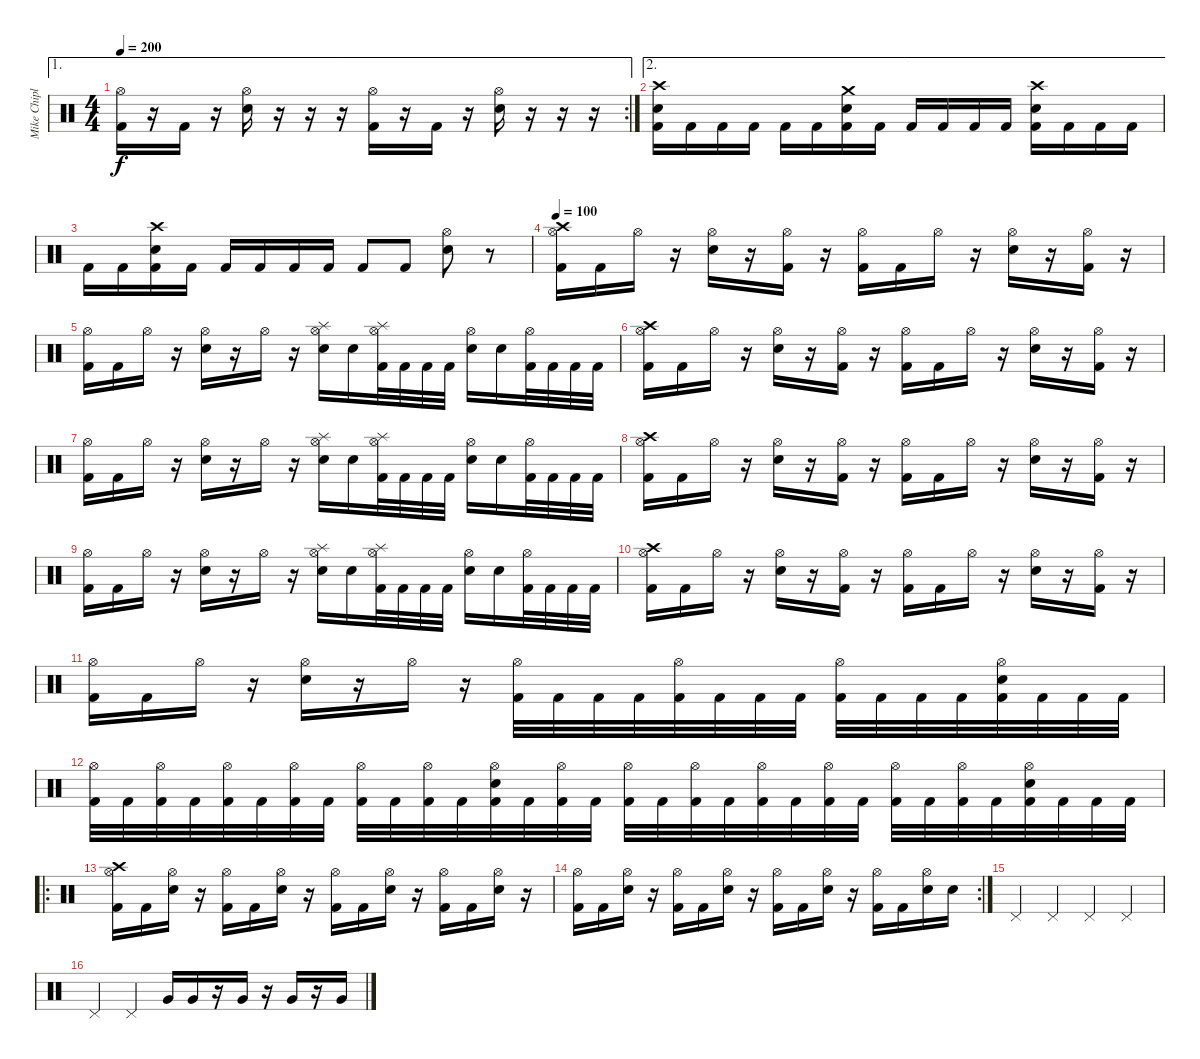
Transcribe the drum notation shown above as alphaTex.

\track ("Mike Chiplin" "Mike Chipl") {instrument percussion}
\staff {score}
\articulation defaults
\ae 1
\rc 2
\ts (4 4)
\tempo 200
\clef neutral
\ks c
("Hi-Hat (open)" "Kick (hit) 2").16{dy f} r.16 "Kick (hit) 2".16 r.16 ("Hi-Hat (open)" "Electric Snare (hit)").16 r.16 r.16 r.16 ("Hi-Hat (open)" "Kick (hit) 2").16 r.16 "Kick (hit) 2".16 r.16 ("Hi-Hat (open)" "Electric Snare (hit)").16 r.16 r.16 r.16 |
\ae 2
("Electric Snare (hit)" "Kick (hit) 2" "Crash high (hit)").16 "Kick (hit) 2".16 "Kick (hit) 2".16 "Kick (hit) 2".16 "Kick (hit) 2".16 "Kick (hit) 2".16 ("Electric Snare (hit)" "Kick (hit) 2" "Crash medium (hit)").16 "Kick (hit) 2".16 "Kick (hit) 2".16 "Kick (hit) 2".16 "Kick (hit) 2".16 "Kick (hit) 2".16 ("Electric Snare (hit)" "Kick (hit) 2" "Crash high (hit)").16 "Kick (hit) 2".16 "Kick (hit) 2".16 "Kick (hit) 2".16 |
"Kick (hit) 2".16 "Kick (hit) 2".16 ("Electric Snare (hit)" "Kick (hit) 2" "Crash high (hit)").16 "Kick (hit) 2".16 "Kick (hit) 2".16 "Kick (hit) 2".16 "Kick (hit) 2".16 "Kick (hit) 2".16 "Kick (hit) 2".8 "Kick (hit) 2".8 ("Electric Snare (hit)" "Hi-Hat (open)").8 r.8 |
\tempo 100
("Hi-Hat (open)" "Kick (hit) 2" "Crash high (hit)").16 "Kick (hit) 2".16 "Hi-Hat (open)".16 r.16 ("Hi-Hat (open)" "Electric Snare (hit)").16 r.16 ("Hi-Hat (open)" "Kick (hit) 2").16 r.16 ("Hi-Hat (open)" "Kick (hit) 2").16 "Kick (hit) 2".16 "Hi-Hat (open)".16 r.16 ("Hi-Hat (open)" "Electric Snare (hit)").16 r.16 ("Hi-Hat (open)" "Kick (hit) 2").16 r.16 |
("Hi-Hat (open)" "Kick (hit) 2").16 "Kick (hit) 2".16 "Hi-Hat (open)".16 r.16 ("Hi-Hat (open)" "Electric Snare (hit)").16 r.16 "Hi-Hat (open)".16 r.16 ("Hi-Hat (open)" "Electric Snare (hit)" "Splash (hit)").16 "Electric Snare (hit)".16 ("Hi-Hat (open)" "Kick (hit) 2" "Splash (hit)").32 "Kick (hit) 2".32 "Kick (hit) 2".32 "Kick (hit) 2".32 ("Hi-Hat (open)" "Electric Snare (hit)").16 "Electric Snare (hit)".16 ("Kick (hit) 2" "Hi-Hat (open)").32 "Kick (hit) 2".32 "Kick (hit) 2".32 "Kick (hit) 2".32 |
("Hi-Hat (open)" "Kick (hit) 2" "Crash high (hit)").16 "Kick (hit) 2".16 "Hi-Hat (open)".16 r.16 ("Hi-Hat (open)" "Electric Snare (hit)").16 r.16 ("Hi-Hat (open)" "Kick (hit) 2").16 r.16 ("Hi-Hat (open)" "Kick (hit) 2").16 "Kick (hit) 2".16 "Hi-Hat (open)".16 r.16 ("Hi-Hat (open)" "Electric Snare (hit)").16 r.16 ("Hi-Hat (open)" "Kick (hit) 2").16 r.16 |
("Hi-Hat (open)" "Kick (hit) 2").16 "Kick (hit) 2".16 "Hi-Hat (open)".16 r.16 ("Hi-Hat (open)" "Electric Snare (hit)").16 r.16 "Hi-Hat (open)".16 r.16 ("Hi-Hat (open)" "Electric Snare (hit)" "Splash (hit)").16 "Electric Snare (hit)".16 ("Hi-Hat (open)" "Kick (hit) 2" "Splash (hit)").32 "Kick (hit) 2".32 "Kick (hit) 2".32 "Kick (hit) 2".32 ("Hi-Hat (open)" "Electric Snare (hit)").16 "Electric Snare (hit)".16 ("Kick (hit) 2" "Hi-Hat (open)").32 "Kick (hit) 2".32 "Kick (hit) 2".32 "Kick (hit) 2".32 |
("Hi-Hat (open)" "Kick (hit) 2" "Crash high (hit)").16 "Kick (hit) 2".16 "Hi-Hat (open)".16 r.16 ("Hi-Hat (open)" "Electric Snare (hit)").16 r.16 ("Hi-Hat (open)" "Kick (hit) 2").16 r.16 ("Hi-Hat (open)" "Kick (hit) 2").16 "Kick (hit) 2".16 "Hi-Hat (open)".16 r.16 ("Hi-Hat (open)" "Electric Snare (hit)").16 r.16 ("Hi-Hat (open)" "Kick (hit) 2").16 r.16 |
("Hi-Hat (open)" "Kick (hit) 2").16 "Kick (hit) 2".16 "Hi-Hat (open)".16 r.16 ("Hi-Hat (open)" "Electric Snare (hit)").16 r.16 "Hi-Hat (open)".16 r.16 ("Hi-Hat (open)" "Electric Snare (hit)" "Splash (hit)").16 "Electric Snare (hit)".16 ("Hi-Hat (open)" "Kick (hit) 2" "Splash (hit)").32 "Kick (hit) 2".32 "Kick (hit) 2".32 "Kick (hit) 2".32 ("Hi-Hat (open)" "Electric Snare (hit)").16 "Electric Snare (hit)".16 ("Kick (hit) 2" "Hi-Hat (open)").32 "Kick (hit) 2".32 "Kick (hit) 2".32 "Kick (hit) 2".32 |
("Hi-Hat (open)" "Kick (hit) 2" "Crash high (hit)").16 "Kick (hit) 2".16 "Hi-Hat (open)".16 r.16 ("Hi-Hat (open)" "Electric Snare (hit)").16 r.16 ("Hi-Hat (open)" "Kick (hit) 2").16 r.16 ("Hi-Hat (open)" "Kick (hit) 2").16 "Kick (hit) 2".16 "Hi-Hat (open)".16 r.16 ("Hi-Hat (open)" "Electric Snare (hit)").16 r.16 ("Hi-Hat (open)" "Kick (hit) 2").16 r.16 |
("Hi-Hat (open)" "Kick (hit) 2").16 "Kick (hit) 2".16 "Hi-Hat (open)".16 r.16 ("Hi-Hat (open)" "Electric Snare (hit)").16 r.16 "Hi-Hat (open)".16 r.16 ("Hi-Hat (open)" "Kick (hit) 2").32 "Kick (hit) 2".32 "Kick (hit) 2".32 "Kick (hit) 2".32 ("Hi-Hat (open)" "Kick (hit) 2").32 "Kick (hit) 2".32 "Kick (hit) 2".32 "Kick (hit) 2".32 ("Hi-Hat (open)" "Kick (hit) 2").32 "Kick (hit) 2".32 "Kick (hit) 2".32 "Kick (hit) 2".32 ("Electric Snare (hit)" "Hi-Hat (open)" "Kick (hit) 2").32 "Kick (hit) 2".32 "Kick (hit) 2".32 "Kick (hit) 2".32 |
("Hi-Hat (open)" "Kick (hit) 2").32 "Kick (hit) 2".32 ("Hi-Hat (open)" "Kick (hit) 2").32 "Kick (hit) 2".32 ("Hi-Hat (open)" "Kick (hit) 2").32 "Kick (hit) 2".32 ("Hi-Hat (open)" "Kick (hit) 2").32 "Kick (hit) 2".32 ("Hi-Hat (open)" "Kick (hit) 2").32 "Kick (hit) 2".32 ("Hi-Hat (open)" "Kick (hit) 2").32 "Kick (hit) 2".32 ("Hi-Hat (open)" "Electric Snare (hit)" "Kick (hit) 2").32 "Kick (hit) 2".32 ("Hi-Hat (open)" "Kick (hit) 2").32 "Kick (hit) 2".32 ("Hi-Hat (open)" "Kick (hit) 2").32 "Kick (hit) 2".32 ("Hi-Hat (open)" "Kick (hit) 2").32 "Kick (hit) 2".32 ("Hi-Hat (open)" "Kick (hit) 2").32 "Kick (hit) 2".32 ("Hi-Hat (open)" "Kick (hit) 2").32 "Kick (hit) 2".32 ("Hi-Hat (open)" "Kick (hit) 2").32 "Kick (hit) 2".32 ("Hi-Hat (open)" "Kick (hit) 2").32 "Kick (hit) 2".32 ("Hi-Hat (open)" "Electric Snare (hit)" "Kick (hit) 2").32 "Kick (hit) 2".32 "Kick (hit) 2".32 "Kick (hit) 2".32 |
\ro
("Hi-Hat (open)" "Kick (hit) 2" "Crash high (hit)").16 "Kick (hit) 2".16 ("Hi-Hat (open)" "Electric Snare (hit)").16 r.16 ("Hi-Hat (open)" "Kick (hit) 2").16 "Kick (hit) 2".16 ("Hi-Hat (open)" "Electric Snare (hit)").16 r.16 ("Hi-Hat (open)" "Kick (hit) 2").16 "Kick (hit) 2".16 ("Hi-Hat (open)" "Electric Snare (hit)").16 r.16 ("Hi-Hat (open)" "Kick (hit) 2").16 "Kick (hit) 2".16 ("Hi-Hat (open)" "Electric Snare (hit)").16 r.16 |
\rc 2
("Hi-Hat (open)" "Kick (hit) 2").16 "Kick (hit) 2".16 ("Hi-Hat (open)" "Electric Snare (hit)").16 r.16 ("Hi-Hat (open)" "Kick (hit) 2").16 "Kick (hit) 2".16 ("Hi-Hat (open)" "Electric Snare (hit)").16 r.16 ("Hi-Hat (open)" "Kick (hit) 2").16 "Kick (hit) 2".16 ("Hi-Hat (open)" "Electric Snare (hit)").16 r.16 ("Hi-Hat (open)" "Kick (hit) 2").16 "Kick (hit) 2".16 ("Hi-Hat (open)" "Electric Snare (hit)").16 "Electric Snare (hit)".16 |
"Pedal Hi-Hat (hit)".4 "Pedal Hi-Hat (hit)".4 "Pedal Hi-Hat (hit)".4 "Pedal Hi-Hat (hit)".4 |
"Pedal Hi-Hat (hit)".4 "Pedal Hi-Hat (hit)".4 "Very Low Tom (hit)".16 "Very Low Tom (hit)".16 r.16 "Very Low Tom (hit)".16 r.16 "Very Low Tom (hit)".16 r.16 "Very Low Tom (hit)".16
